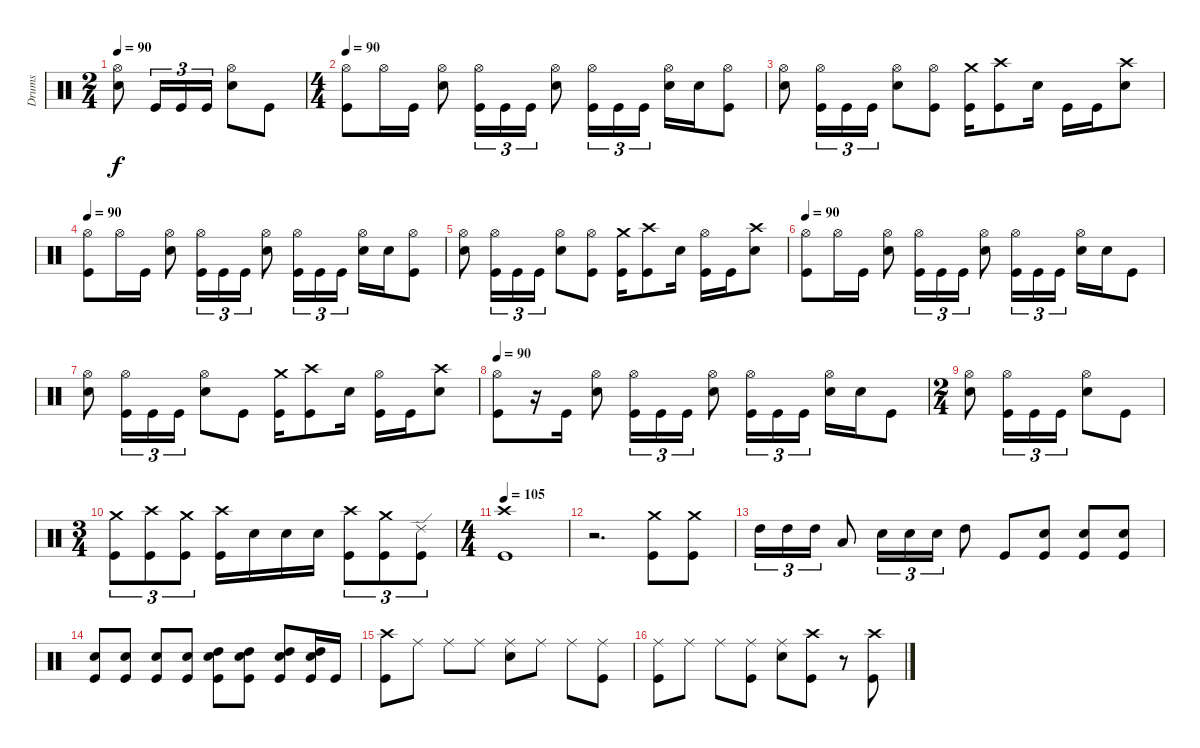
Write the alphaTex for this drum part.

\track ("Drums" "Drums") {instrument percussion}
\staff {score}
\articulation defaults
\ts (2 4)
\tempo 90
\clef neutral
\ks c
("Snare (hit) 2" "Hi-Hat (open)").8{dy f} "Kick (hit)".16{tu (3 2)} "Kick (hit)".16{tu (3 2)} "Kick (hit)".16{tu (3 2)} ("Snare (hit) 2" "Hi-Hat (open)").8 "Kick (hit)".8 |
\ts (4 4)
\tempo 90
("Kick (hit)" "Hi-Hat (open)").8 "Hi-Hat (open)".16 "Kick (hit)".16 ("Snare (hit) 2" "Hi-Hat (open)").8 ("Kick (hit)" "Hi-Hat (open)").16{tu (3 2)} "Kick (hit)".16{tu (3 2)} "Kick (hit)".16{tu (3 2)} ("Snare (hit) 2" "Hi-Hat (open)").8 ("Kick (hit)" "Hi-Hat (open)").16{tu (3 2)} "Kick (hit)".16{tu (3 2)} "Kick (hit)".16{tu (3 2)} ("Snare (hit) 2" "Hi-Hat (open)").16 "Snare (hit) 2".16 ("Kick (hit)" "Hi-Hat (open)").8 |
("Snare (hit) 2" "Hi-Hat (open)").8 ("Kick (hit)" "Hi-Hat (open)").16{tu (3 2)} "Kick (hit)".16{tu (3 2)} "Kick (hit)".16{tu (3 2)} ("Snare (hit) 2" "Hi-Hat (open)").8 ("Kick (hit)" "Hi-Hat (open)").8 ("Kick (hit)" "Crash medium (hit)").16 ("Kick (hit)" "Crash high (hit)").8 "Snare (hit) 2".16 "Kick (hit)".16 "Kick (hit)".16 ("Snare (hit) 2" "Crash high (hit)").8 |
\tempo 90
("Kick (hit)" "Hi-Hat (open)").8 "Hi-Hat (open)".16 "Kick (hit)".16 ("Snare (hit) 2" "Hi-Hat (open)").8 ("Kick (hit)" "Hi-Hat (open)").16{tu (3 2)} "Kick (hit)".16{tu (3 2)} "Kick (hit)".16{tu (3 2)} ("Snare (hit) 2" "Hi-Hat (open)").8 ("Kick (hit)" "Hi-Hat (open)").16{tu (3 2)} "Kick (hit)".16{tu (3 2)} "Kick (hit)".16{tu (3 2)} ("Snare (hit) 2" "Hi-Hat (open)").16 "Snare (hit) 2".16 ("Kick (hit)" "Hi-Hat (open)").8 |
("Snare (hit) 2" "Hi-Hat (open)").8 ("Kick (hit)" "Hi-Hat (open)").16{tu (3 2)} "Kick (hit)".16{tu (3 2)} "Kick (hit)".16{tu (3 2)} ("Snare (hit) 2" "Hi-Hat (open)").8 ("Kick (hit)" "Hi-Hat (open)").8 ("Kick (hit)" "Crash medium (hit)").16 ("Kick (hit)" "Crash high (hit)").8 "Snare (hit) 2".16 ("Kick (hit)" "Hi-Hat (open)").16 "Kick (hit)".16 ("Snare (hit) 2" "Crash high (hit)").8 |
\tempo 90
("Kick (hit)" "Hi-Hat (open)").8 "Hi-Hat (open)".16 "Kick (hit)".16 ("Snare (hit) 2" "Hi-Hat (open)").8 ("Kick (hit)" "Hi-Hat (open)").16{tu (3 2)} "Kick (hit)".16{tu (3 2)} "Kick (hit)".16{tu (3 2)} ("Snare (hit) 2" "Hi-Hat (open)").8 ("Kick (hit)" "Hi-Hat (open)").16{tu (3 2)} "Kick (hit)".16{tu (3 2)} "Kick (hit)".16{tu (3 2)} ("Snare (hit) 2" "Hi-Hat (open)").16 "Snare (hit) 2".16 "Kick (hit)".8 |
("Snare (hit) 2" "Hi-Hat (open)").8 ("Kick (hit)" "Hi-Hat (open)").16{tu (3 2)} "Kick (hit)".16{tu (3 2)} "Kick (hit)".16{tu (3 2)} ("Snare (hit) 2" "Hi-Hat (open)").8 "Kick (hit)".8 ("Kick (hit)" "Crash medium (hit)").16 ("Kick (hit)" "Crash high (hit)").8 "Snare (hit) 2".16 ("Kick (hit)" "Hi-Hat (open)").16 "Kick (hit)".16 ("Snare (hit) 2" "Crash high (hit)").8 |
\tempo 90
("Kick (hit)" "Hi-Hat (open)").8 r.16 "Kick (hit)".16 ("Snare (hit) 2" "Hi-Hat (open)").8 ("Kick (hit)" "Hi-Hat (open)").16{tu (3 2)} "Kick (hit)".16{tu (3 2)} "Kick (hit)".16{tu (3 2)} ("Snare (hit) 2" "Hi-Hat (open)").8 ("Kick (hit)" "Hi-Hat (open)").16{tu (3 2)} "Kick (hit)".16{tu (3 2)} "Kick (hit)".16{tu (3 2)} ("Snare (hit) 2" "Hi-Hat (open)").16 "Snare (hit) 2".16 "Kick (hit)".8 |
\ts (2 4)
("Snare (hit) 2" "Hi-Hat (open)").8 ("Kick (hit)" "Hi-Hat (open)").16{tu (3 2)} "Kick (hit)".16{tu (3 2)} "Kick (hit)".16{tu (3 2)} ("Snare (hit) 2" "Hi-Hat (open)").8 "Kick (hit)".8 |
\ts (3 4)
("Kick (hit)" "Crash medium (hit)").8{tu (3 2)} ("Kick (hit)" "Crash high (hit)").8{tu (3 2)} ("Kick (hit)" "Crash medium (hit)").8{tu (3 2)} ("Kick (hit)" "Crash high (hit)").16 "Snare (hit) 2".16 "Snare (hit) 2".16 "Snare (hit) 2".16 ("Kick (hit)" "Crash high (hit)").8{tu (3 2)} ("Kick (hit)" "Crash medium (hit)").8{tu (3 2)} ("Kick (hit)" "Ride (edge) 2").8{tu (3 2)} |
\ts (4 4)
\tempo 105
("Kick (hit)" "Crash high (hit)").1 |
r.2{d} ("Kick (hit)" "Crash medium (hit)").8 ("Kick (hit)" "Crash medium (hit)").8 |
"High Tom (hit)".16{tu (3 2)} "High Tom (hit)".16{tu (3 2)} "High Tom (hit)".16{tu (3 2)} "Low Tom (hit)".8 "Snare (hit) 2".16{tu (3 2)} "Snare (hit) 2".16{tu (3 2)} "Snare (hit) 2".16{tu (3 2)} "High Tom (hit)".8 "Kick (hit)".8 ("Kick (hit)" "Snare (hit) 2").8 ("Kick (hit)" "Snare (hit) 2").8 ("Kick (hit)" "Snare (hit) 2").8 |
("Kick (hit)" "Snare (hit) 2").8 ("Kick (hit)" "Snare (hit) 2").8 ("Kick (hit)" "Snare (hit) 2").8 ("Kick (hit)" "Snare (hit) 2").8 ("Kick (hit)" "Snare (hit) 2" "High Tom (hit)").8 ("Kick (hit)" "Snare (hit) 2" "High Tom (hit)").8 ("Kick (hit)" "Snare (hit) 2" "High Tom (hit)").8 ("Kick (hit)" "Snare (hit) 2" "High Tom (hit)").16 "Kick (hit)".16 |
("Kick (hit)" "Crash high (hit)").8 "Ride (middle)".8 "Ride (middle)".8 "Ride (middle)".8 ("Snare (hit) 2" "Ride (middle)").8 "Ride (middle)".8 "Ride (middle)".8 ("Kick (hit)" "Ride (middle)").8 |
("Kick (hit)" "Ride (middle)").8 "Ride (middle)".8 "Ride (middle)".8 ("Kick (hit)" "Ride (middle)").8 ("Snare (hit) 2" "Ride (middle)").8 ("Kick (hit)" "Crash high (hit)").8 r.8 ("Kick (hit)" "Crash high (hit)").8
